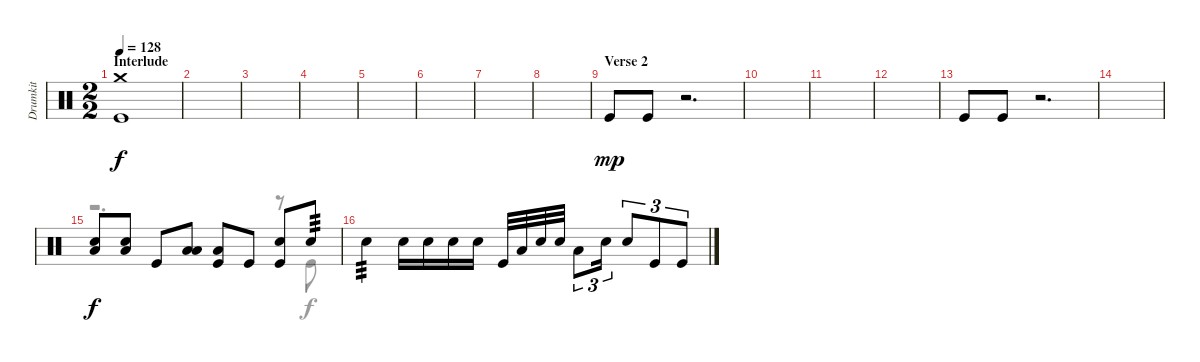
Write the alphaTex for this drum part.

\track ("Drumkit" "Drumkit") {instrument percussion}
\staff {score}
\articulation defaults
\voice
\ts (2 2)
\section ("" "Interlude")
\tempo 128
\clef neutral
\ks c
("Kick (hit)" "Crash medium (hit)").1{dy f} |
|
|
|
|
|
|
|
\section ("" "Verse 2")
"Kick (hit)".8{dy mp} "Kick (hit)".8 r.2{d} |
|
|
|
"Kick (hit)".8 "Kick (hit)".8 r.2{d} |
|
("Snare (hit) 2" "Low Floor Tom (hit)").8{dy f} ("Snare (hit) 2" "Low Floor Tom (hit)").8 "Kick (hit)".8 ("Low Tom (hit)" "Low Floor Tom (hit)").8 ("Low Floor Tom (hit)" "Kick (hit)").8 "Kick (hit)".8 ("Snare (hit) 2" "Kick (hit)").8 "Snare (hit) 2".8{tp 3} |
"Snare (hit) 2".4{tp 3} "Snare (hit) 2".16 "Snare (hit) 2".16 "Snare (hit) 2".16 "Snare (hit) 2".16 "Kick (hit)".32 "Low Tom (hit)".32 "Snare (hit) 2".32 "Snare (hit) 2".32 "Low Tom (hit)".8{tu (3 2)} "Snare (hit) 2".16{tu (3 2)} "Snare (hit) 2".8{tu (3 2)} "Kick (hit)".8{tu (3 2)} "Kick (hit)".8{tu (3 2)}
\voice
\clef neutral
\ottava regular
\simile none
\ks c
|
|
|
|
|
|
|
|
|
|
|
|
|
|
r.2{d} r.8 "Kick (hit)".8 |
